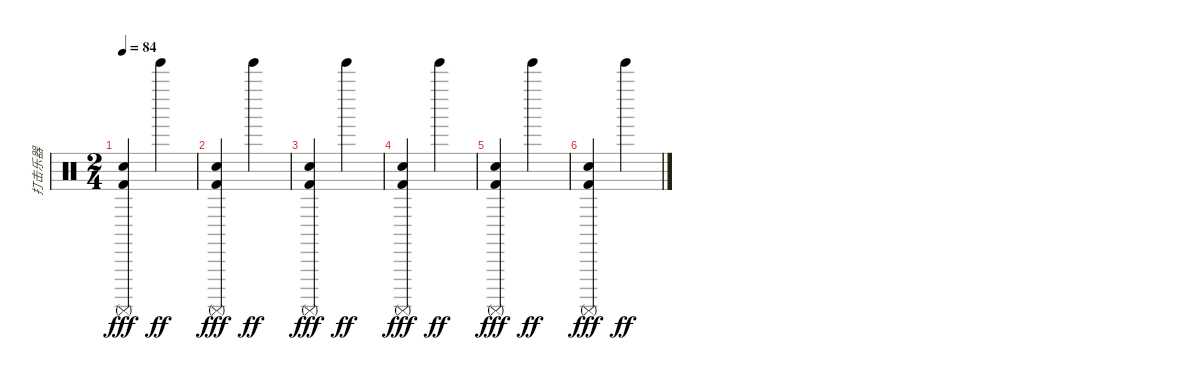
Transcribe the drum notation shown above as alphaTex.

\track ("打击乐器" "打击乐器") {instrument percussion}
\staff {score}
\articulation defaults
\ts (2 4)
\tempo 84
\clef neutral
\ks c
("Hand Clap (hit)" "Surdo (mute)" "Kick (hit) 2").4{dy fff} "Tinkle Bell (hit)".4{dy ff} |
("Hand Clap (hit)" "Surdo (mute)" "Kick (hit) 2").4{dy fff} "Tinkle Bell (hit)".4{dy ff} |
("Hand Clap (hit)" "Surdo (mute)" "Kick (hit) 2").4{dy fff} "Tinkle Bell (hit)".4{dy ff} |
("Hand Clap (hit)" "Surdo (mute)" "Kick (hit) 2").4{dy fff} "Tinkle Bell (hit)".4{dy ff} |
("Hand Clap (hit)" "Surdo (mute)" "Kick (hit) 2").4{dy fff} "Tinkle Bell (hit)".4{dy ff} |
("Hand Clap (hit)" "Surdo (mute)" "Kick (hit) 2").4{dy fff} "Tinkle Bell (hit)".4{dy ff}
